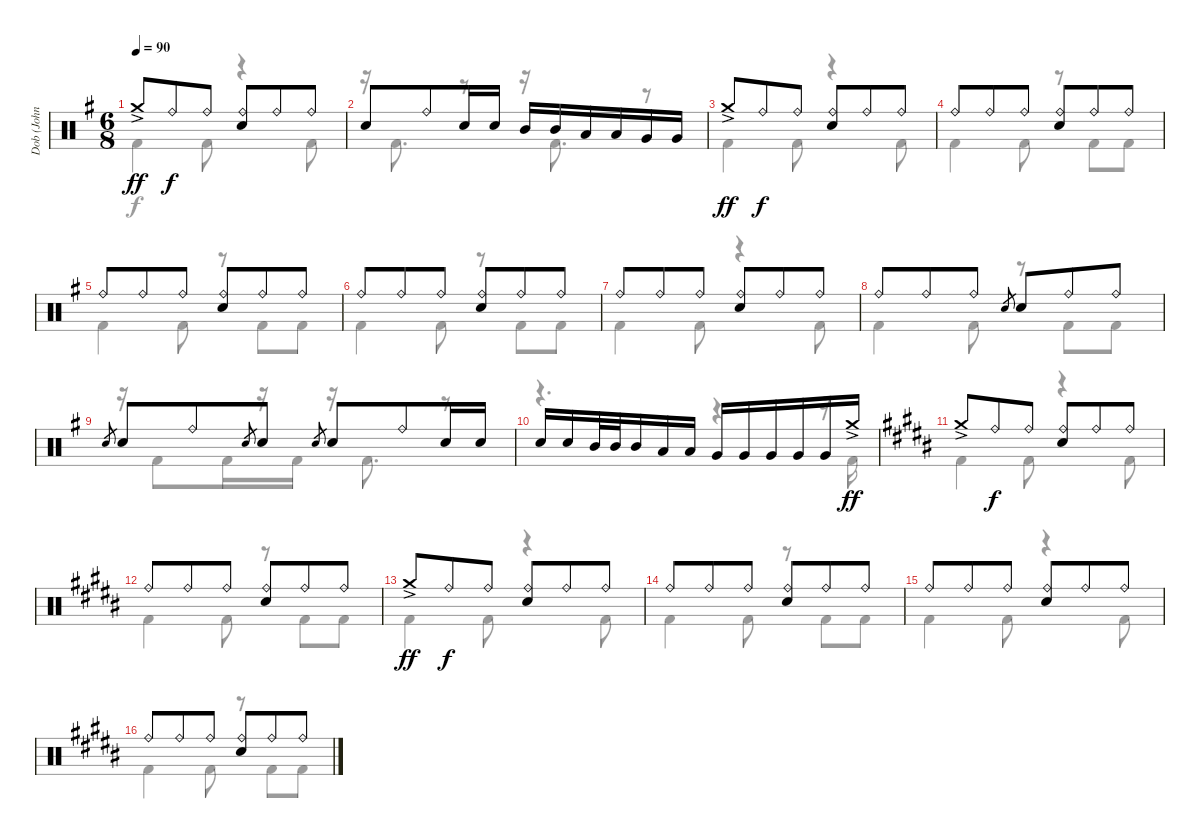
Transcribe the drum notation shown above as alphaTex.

\track ("Dob (John Macaluso)" "Dob (John ") {instrument percussion}
\staff {score}
\articulation defaults
\voice
\ts (6 8)
\tempo 90
\clef neutral
\ks g "Crash medium (hit)"{ac}.8{dy ff} "Ride (bell)".8{dy f} "Ride (bell)".8
("Ride (bell)" "Electric Snare (hit)").8 "Ride (bell)".8 "Ride (bell)".8 |
"Electric Snare (hit)".8 "Ride (bell)".8 "Electric Snare (hit)".16 "Electric Snare (hit)".16 "Mid Tom (hit)".16 "Mid Tom (hit)".16 "Low Tom (hit)".16 "Low Tom (hit)".16 "Very Low Tom (hit)".16 "Very Low Tom (hit)".16 |
"Crash medium (hit)"{ac}.8{dy ff} "Ride (bell)".8{dy f} "Ride (bell)".8 ("Ride (bell)" "Electric Snare (hit)").8 "Ride (bell)".8 "Ride (bell)".8 |
"Ride (bell)".8 "Ride (bell)".8 "Ride (bell)".8 ("Ride (bell)" "Electric Snare (hit)").8 "Ride (bell)".8 "Ride (bell)".8 |
"Ride (bell)".8 "Ride (bell)".8 "Ride (bell)".8 ("Ride (bell)" "Electric Snare (hit)").8 "Ride (bell)".8 "Ride (bell)".8 |
"Ride (bell)".8 "Ride (bell)".8 "Ride (bell)".8 ("Ride (bell)" "Electric Snare (hit)").8 "Ride (bell)".8 "Ride (bell)".8 |
"Ride (bell)".8 "Ride (bell)".8 "Ride (bell)".8 ("Ride (bell)" "Electric Snare (hit)").8 "Ride (bell)".8 "Ride (bell)".8 |
"Ride (bell)".8 "Ride (bell)".8 "Ride (bell)".8 "Electric Snare (hit)".8{gr} "Electric Snare (hit)".8 "Ride (bell)".8 "Ride (bell)".8 |
"Electric Snare (hit)".8{gr} "Electric Snare (hit)".8 "Ride (bell)".8 "Electric Snare (hit)".8{gr} "Electric Snare (hit)".8 "Electric Snare (hit)".8{gr} "Electric Snare (hit)".8 "Ride (bell)".8 "Electric Snare (hit)".16 "Electric Snare (hit)".16 |
"Electric Snare (hit)".16 "Electric Snare (hit)".16 "Mid Tom (hit)".32 "Mid Tom (hit)".32 "Mid Tom (hit)".16 "Low Tom (hit)".16 "Low Tom (hit)".16 "Very Low Tom (hit)".16 "Very Low Tom (hit)".16 "Very Low Tom (hit)".16 "Very Low Tom (hit)".16 "Very Low Tom (hit)".16 "Crash medium (hit)"{ac}.16{dy ff} |
\ks b "Crash medium (hit)"{ac}.8 "Ride (bell)".8{dy f} "Ride (bell)".8
("Ride (bell)" "Electric Snare (hit)").8 "Ride (bell)".8 "Ride (bell)".8 |
"Ride (bell)".8 "Ride (bell)".8 "Ride (bell)".8 ("Ride (bell)" "Electric Snare (hit)").8 "Ride (bell)".8 "Ride (bell)".8 |
"Crash medium (hit)"{ac}.8{dy ff} "Ride (bell)".8{dy f} "Ride (bell)".8 ("Ride (bell)" "Electric Snare (hit)").8 "Ride (bell)".8 "Ride (bell)".8 |
"Ride (bell)".8 "Ride (bell)".8 "Ride (bell)".8 ("Ride (bell)" "Electric Snare (hit)").8 "Ride (bell)".8 "Ride (bell)".8 |
"Ride (bell)".8 "Ride (bell)".8 "Ride (bell)".8 ("Ride (bell)" "Electric Snare (hit)").8 "Ride (bell)".8 "Ride (bell)".8 |
"Ride (bell)".8 "Ride (bell)".8 "Ride (bell)".8 ("Ride (bell)" "Electric Snare (hit)").8 "Ride (bell)".8 "Ride (bell)".8
\voice
\clef neutral
\ottava regular
\simile none
\ks g "Kick (hit) 2".4{dy f} "Kick (hit) 2".8
r.4 "Kick (hit) 2".8 |
r.16 "Kick (hit) 2".8{d} r.8 r.16 "Kick (hit) 2".8{d} r.8 |
"Kick (hit) 2".4 "Kick (hit) 2".8 r.4 "Kick (hit) 2".8 |
"Kick (hit) 2".4 "Kick (hit) 2".8 r.8 "Kick (hit) 2".8 "Kick (hit) 2".8 |
"Kick (hit) 2".4 "Kick (hit) 2".8 r.8 "Kick (hit) 2".8 "Kick (hit) 2".8 |
"Kick (hit) 2".4 "Kick (hit) 2".8 r.8 "Kick (hit) 2".8 "Kick (hit) 2".8 |
"Kick (hit) 2".4 "Kick (hit) 2".8 r.4 "Kick (hit) 2".8 |
"Kick (hit) 2".4 "Kick (hit) 2".8 r.8 "Kick (hit) 2".8 "Kick (hit) 2".8 |
r.16 "Kick (hit) 2".8 "Kick (hit) 2".16 r.16 "Kick (hit) 2".16 r.16 "Kick (hit) 2".8{d} r.8 |
r.4{d} r.4 r.16 "Kick (hit) 2".16 |
\ks b "Kick (hit) 2".4 "Kick (hit) 2".8
r.4 "Kick (hit) 2".8 |
"Kick (hit) 2".4 "Kick (hit) 2".8 r.8 "Kick (hit) 2".8 "Kick (hit) 2".8 |
"Kick (hit) 2".4 "Kick (hit) 2".8 r.4 "Kick (hit) 2".8 |
"Kick (hit) 2".4 "Kick (hit) 2".8 r.8 "Kick (hit) 2".8 "Kick (hit) 2".8 |
"Kick (hit) 2".4 "Kick (hit) 2".8 r.4 "Kick (hit) 2".8 |
"Kick (hit) 2".4 "Kick (hit) 2".8 r.8 "Kick (hit) 2".8 "Kick (hit) 2".8
